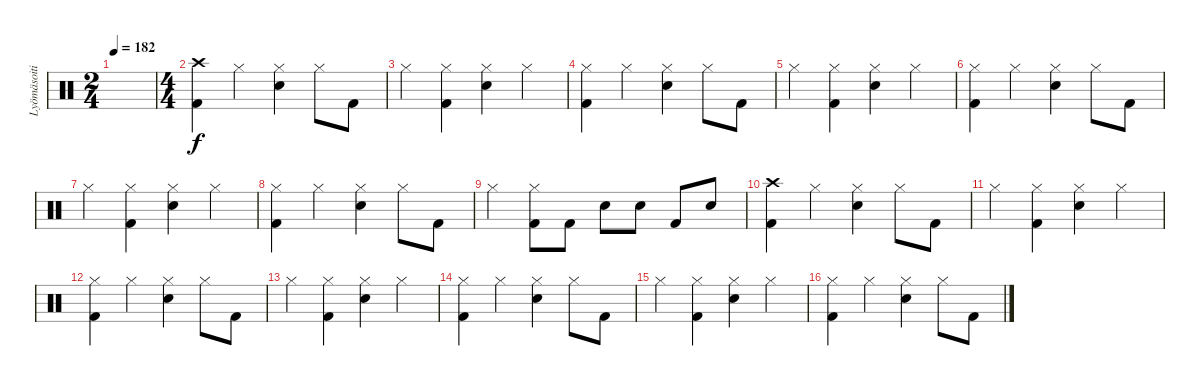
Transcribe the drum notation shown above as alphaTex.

\track ("Lyömäsoitin" "Lyömäsoiti") {instrument percussion}
\staff {score}
\articulation defaults
\ts (2 4)
\tempo 182
\clef neutral
\ks c
|
\ts (4 4)
("Crash high (hit)" "Kick (hit) 2").4 "Hi-Hat (closed)".4 ("Hi-Hat (closed)" "Electric Snare (hit)").4 "Hi-Hat (closed)".8 "Kick (hit) 2".8 |
"Hi-Hat (closed)".4 ("Hi-Hat (closed)" "Kick (hit) 2").4 ("Hi-Hat (closed)" "Electric Snare (hit)").4 "Hi-Hat (closed)".4 |
("Hi-Hat (closed)" "Kick (hit) 2").4 "Hi-Hat (closed)".4 ("Hi-Hat (closed)" "Electric Snare (hit)").4 "Hi-Hat (closed)".8 "Kick (hit) 2".8 |
"Hi-Hat (closed)".4 ("Hi-Hat (closed)" "Kick (hit) 2").4 ("Hi-Hat (closed)" "Electric Snare (hit)").4 "Hi-Hat (closed)".4 |
("Hi-Hat (closed)" "Kick (hit) 2").4 "Hi-Hat (closed)".4 ("Hi-Hat (closed)" "Electric Snare (hit)").4 "Hi-Hat (closed)".8 "Kick (hit) 2".8 |
"Hi-Hat (closed)".4 ("Hi-Hat (closed)" "Kick (hit) 2").4 ("Hi-Hat (closed)" "Electric Snare (hit)").4 "Hi-Hat (closed)".4 |
("Hi-Hat (closed)" "Kick (hit) 2").4 "Hi-Hat (closed)".4 ("Hi-Hat (closed)" "Electric Snare (hit)").4 "Hi-Hat (closed)".8 "Kick (hit) 2".8 |
"Hi-Hat (closed)".4 ("Hi-Hat (closed)" "Kick (hit) 2").8 "Kick (hit) 2".8 "Electric Snare (hit)".8 "Electric Snare (hit)".8 "Kick (hit) 2".8 "Electric Snare (hit)".8 |
("Crash high (hit)" "Kick (hit) 2").4 "Hi-Hat (closed)".4 ("Hi-Hat (closed)" "Electric Snare (hit)").4 "Hi-Hat (closed)".8 "Kick (hit) 2".8 |
"Hi-Hat (closed)".4 ("Hi-Hat (closed)" "Kick (hit) 2").4 ("Hi-Hat (closed)" "Electric Snare (hit)").4 "Hi-Hat (closed)".4 |
("Hi-Hat (closed)" "Kick (hit) 2").4 "Hi-Hat (closed)".4 ("Hi-Hat (closed)" "Electric Snare (hit)").4 "Hi-Hat (closed)".8 "Kick (hit) 2".8 |
"Hi-Hat (closed)".4 ("Hi-Hat (closed)" "Kick (hit) 2").4 ("Hi-Hat (closed)" "Electric Snare (hit)").4 "Hi-Hat (closed)".4 |
("Hi-Hat (closed)" "Kick (hit) 2").4 "Hi-Hat (closed)".4 ("Hi-Hat (closed)" "Electric Snare (hit)").4 "Hi-Hat (closed)".8 "Kick (hit) 2".8 |
"Hi-Hat (closed)".4 ("Hi-Hat (closed)" "Kick (hit) 2").4 ("Hi-Hat (closed)" "Electric Snare (hit)").4 "Hi-Hat (closed)".4 |
("Hi-Hat (closed)" "Kick (hit) 2").4 "Hi-Hat (closed)".4 ("Hi-Hat (closed)" "Electric Snare (hit)").4 "Hi-Hat (closed)".8 "Kick (hit) 2".8
